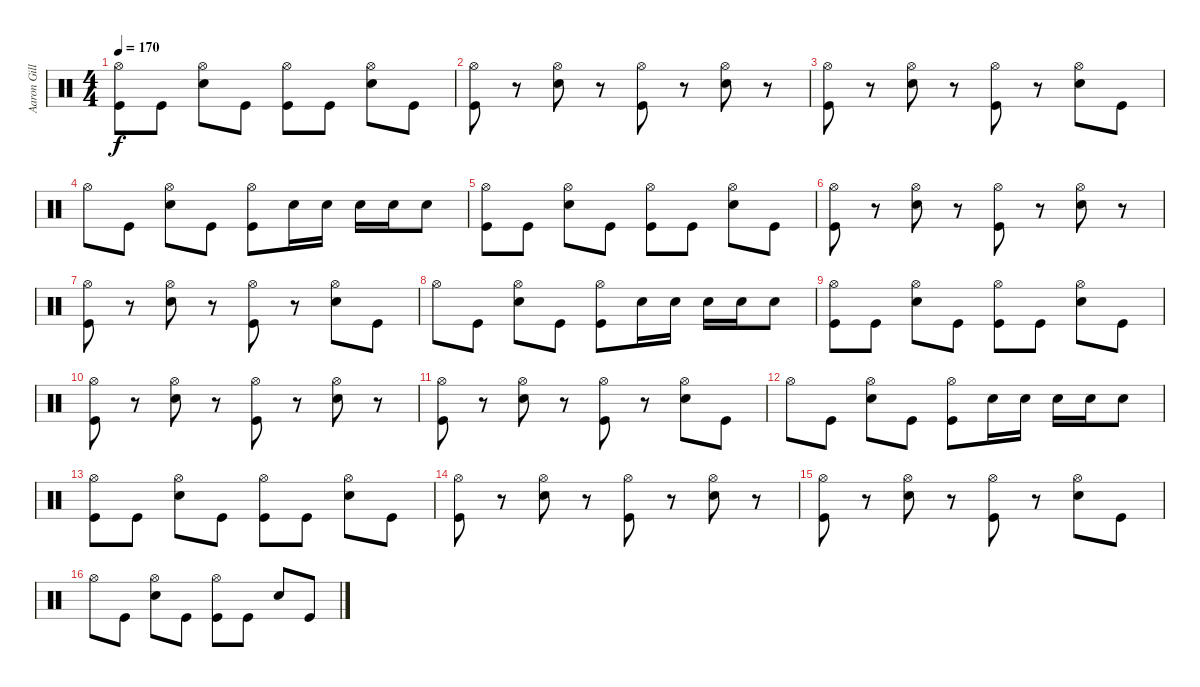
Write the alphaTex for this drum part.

\track ("Aaron Gillepsie (Drums)" "Aaron Gill") {instrument percussion}
\staff {score}
\articulation defaults
\ts (4 4)
\tempo 170
\clef neutral
\ks c
("Hi-Hat (open)" "Kick (hit)").8{dy f} "Kick (hit)".8 ("Hi-Hat (open)" "Electric Snare (hit)").8 "Kick (hit)".8 ("Hi-Hat (open)" "Kick (hit)").8 "Kick (hit)".8 ("Hi-Hat (open)" "Electric Snare (hit)").8 "Kick (hit)".8 |
("Hi-Hat (open)" "Kick (hit)").8 r.8 ("Hi-Hat (open)" "Electric Snare (hit)").8 r.8 ("Hi-Hat (open)" "Kick (hit)").8 r.8 ("Hi-Hat (open)" "Electric Snare (hit)").8 r.8 |
("Hi-Hat (open)" "Kick (hit)").8 r.8 ("Hi-Hat (open)" "Electric Snare (hit)").8 r.8 ("Hi-Hat (open)" "Kick (hit)").8 r.8 ("Hi-Hat (open)" "Electric Snare (hit)").8 "Kick (hit)".8 |
"Hi-Hat (open)".8 "Kick (hit)".8 ("Hi-Hat (open)" "Electric Snare (hit)").8 "Kick (hit)".8 ("Hi-Hat (open)" "Kick (hit)").8 "Electric Snare (hit)".16 "Electric Snare (hit)".16 "Electric Snare (hit)".16 "Electric Snare (hit)".16 "Electric Snare (hit)".8 |
("Hi-Hat (open)" "Kick (hit)").8 "Kick (hit)".8 ("Hi-Hat (open)" "Electric Snare (hit)").8 "Kick (hit)".8 ("Hi-Hat (open)" "Kick (hit)").8 "Kick (hit)".8 ("Hi-Hat (open)" "Electric Snare (hit)").8 "Kick (hit)".8 |
("Hi-Hat (open)" "Kick (hit)").8 r.8 ("Hi-Hat (open)" "Electric Snare (hit)").8 r.8 ("Hi-Hat (open)" "Kick (hit)").8 r.8 ("Hi-Hat (open)" "Electric Snare (hit)").8 r.8 |
("Hi-Hat (open)" "Kick (hit)").8 r.8 ("Hi-Hat (open)" "Electric Snare (hit)").8 r.8 ("Hi-Hat (open)" "Kick (hit)").8 r.8 ("Hi-Hat (open)" "Electric Snare (hit)").8 "Kick (hit)".8 |
"Hi-Hat (open)".8 "Kick (hit)".8 ("Hi-Hat (open)" "Electric Snare (hit)").8 "Kick (hit)".8 ("Hi-Hat (open)" "Kick (hit)").8 "Electric Snare (hit)".16 "Electric Snare (hit)".16 "Electric Snare (hit)".16 "Electric Snare (hit)".16 "Electric Snare (hit)".8 |
("Hi-Hat (open)" "Kick (hit)").8 "Kick (hit)".8 ("Hi-Hat (open)" "Electric Snare (hit)").8 "Kick (hit)".8 ("Hi-Hat (open)" "Kick (hit)").8 "Kick (hit)".8 ("Hi-Hat (open)" "Electric Snare (hit)").8 "Kick (hit)".8 |
("Hi-Hat (open)" "Kick (hit)").8 r.8 ("Hi-Hat (open)" "Electric Snare (hit)").8 r.8 ("Hi-Hat (open)" "Kick (hit)").8 r.8 ("Hi-Hat (open)" "Electric Snare (hit)").8 r.8 |
("Hi-Hat (open)" "Kick (hit)").8 r.8 ("Hi-Hat (open)" "Electric Snare (hit)").8 r.8 ("Hi-Hat (open)" "Kick (hit)").8 r.8 ("Hi-Hat (open)" "Electric Snare (hit)").8 "Kick (hit)".8 |
"Hi-Hat (open)".8 "Kick (hit)".8 ("Hi-Hat (open)" "Electric Snare (hit)").8 "Kick (hit)".8 ("Hi-Hat (open)" "Kick (hit)").8 "Electric Snare (hit)".16 "Electric Snare (hit)".16 "Electric Snare (hit)".16 "Electric Snare (hit)".16 "Electric Snare (hit)".8 |
("Hi-Hat (open)" "Kick (hit)").8 "Kick (hit)".8 ("Hi-Hat (open)" "Electric Snare (hit)").8 "Kick (hit)".8 ("Hi-Hat (open)" "Kick (hit)").8 "Kick (hit)".8 ("Hi-Hat (open)" "Electric Snare (hit)").8 "Kick (hit)".8 |
("Hi-Hat (open)" "Kick (hit)").8 r.8 ("Hi-Hat (open)" "Electric Snare (hit)").8 r.8 ("Hi-Hat (open)" "Kick (hit)").8 r.8 ("Hi-Hat (open)" "Electric Snare (hit)").8 r.8 |
("Hi-Hat (open)" "Kick (hit)").8 r.8 ("Hi-Hat (open)" "Electric Snare (hit)").8 r.8 ("Hi-Hat (open)" "Kick (hit)").8 r.8 ("Hi-Hat (open)" "Electric Snare (hit)").8 "Kick (hit)".8 |
"Hi-Hat (open)".8 "Kick (hit)".8 ("Hi-Hat (open)" "Electric Snare (hit)").8 "Kick (hit)".8 ("Hi-Hat (open)" "Kick (hit)").8 "Kick (hit)".8 "Electric Snare (hit)".8 "Kick (hit)".8
